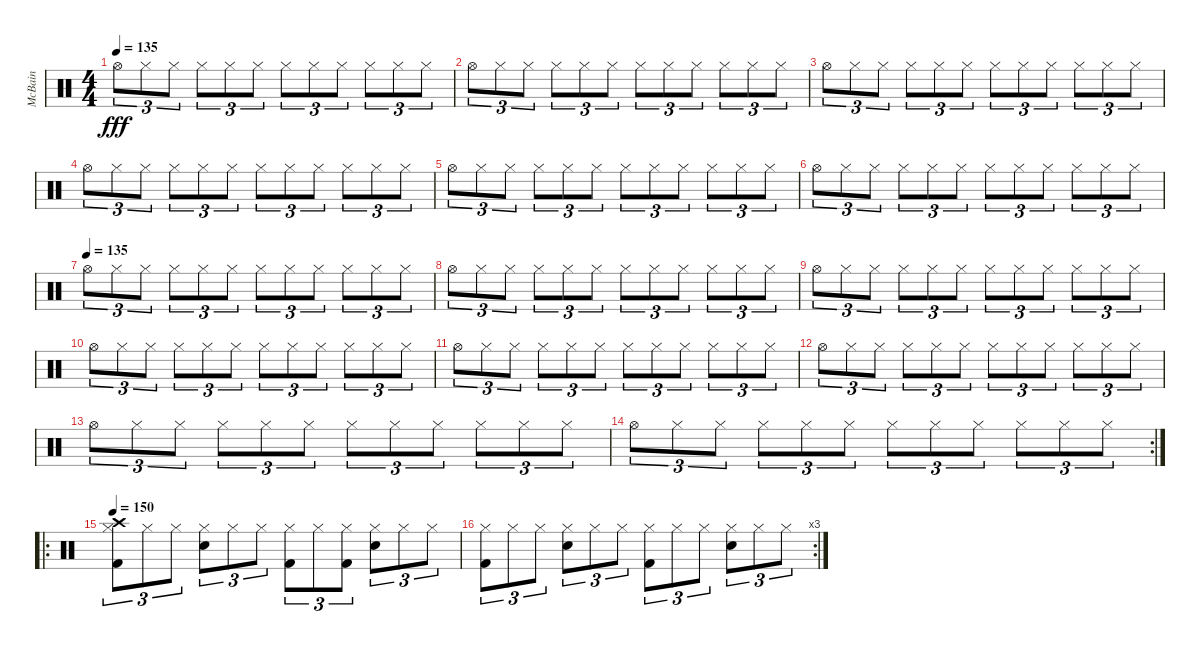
\track ("McBain" "McBain") {instrument percussion}
\staff {score}
\articulation defaults
\ts (4 4)
\tempo 135
\clef neutral
\ks c "Hi-Hat (open)".8{tu (3 2) dy fff} "Hi-Hat (closed)".8{tu (3 2)} "Hi-Hat (closed)".8{tu (3 2)} "Hi-Hat (closed)".8{tu (3 2)} "Hi-Hat (closed)".8{tu (3 2)} "Hi-Hat (closed)".8{tu (3 2)} "Hi-Hat (closed)".8{tu (3 2)} "Hi-Hat (closed)".8{tu (3 2)} "Hi-Hat (closed)".8{tu (3 2)} "Hi-Hat (closed)".8{tu (3 2)} "Hi-Hat (closed)".8{tu (3 2)} "Hi-Hat (closed)".8{tu (3 2)}
|
"Hi-Hat (open)".8{tu (3 2)} "Hi-Hat (closed)".8{tu (3 2)} "Hi-Hat (closed)".8{tu (3 2)} "Hi-Hat (closed)".8{tu (3 2)} "Hi-Hat (closed)".8{tu (3 2)} "Hi-Hat (closed)".8{tu (3 2)} "Hi-Hat (closed)".8{tu (3 2)} "Hi-Hat (closed)".8{tu (3 2)} "Hi-Hat (closed)".8{tu (3 2)} "Hi-Hat (closed)".8{tu (3 2)} "Hi-Hat (closed)".8{tu (3 2)} "Hi-Hat (closed)".8{tu (3 2)} |
"Hi-Hat (open)".8{tu (3 2)} "Hi-Hat (closed)".8{tu (3 2)} "Hi-Hat (closed)".8{tu (3 2)} "Hi-Hat (closed)".8{tu (3 2)} "Hi-Hat (closed)".8{tu (3 2)} "Hi-Hat (closed)".8{tu (3 2)} "Hi-Hat (closed)".8{tu (3 2)} "Hi-Hat (closed)".8{tu (3 2)} "Hi-Hat (closed)".8{tu (3 2)} "Hi-Hat (closed)".8{tu (3 2)} "Hi-Hat (closed)".8{tu (3 2)} "Hi-Hat (closed)".8{tu (3 2)} |
"Hi-Hat (open)".8{tu (3 2)} "Hi-Hat (closed)".8{tu (3 2)} "Hi-Hat (closed)".8{tu (3 2)} "Hi-Hat (closed)".8{tu (3 2)} "Hi-Hat (closed)".8{tu (3 2)} "Hi-Hat (closed)".8{tu (3 2)} "Hi-Hat (closed)".8{tu (3 2)} "Hi-Hat (closed)".8{tu (3 2)} "Hi-Hat (closed)".8{tu (3 2)} "Hi-Hat (closed)".8{tu (3 2)} "Hi-Hat (closed)".8{tu (3 2)} "Hi-Hat (closed)".8{tu (3 2)} |
"Hi-Hat (open)".8{tu (3 2)} "Hi-Hat (closed)".8{tu (3 2)} "Hi-Hat (closed)".8{tu (3 2)} "Hi-Hat (closed)".8{tu (3 2)} "Hi-Hat (closed)".8{tu (3 2)} "Hi-Hat (closed)".8{tu (3 2)} "Hi-Hat (closed)".8{tu (3 2)} "Hi-Hat (closed)".8{tu (3 2)} "Hi-Hat (closed)".8{tu (3 2)} "Hi-Hat (closed)".8{tu (3 2)} "Hi-Hat (closed)".8{tu (3 2)} "Hi-Hat (closed)".8{tu (3 2)} |
"Hi-Hat (open)".8{tu (3 2)} "Hi-Hat (closed)".8{tu (3 2)} "Hi-Hat (closed)".8{tu (3 2)} "Hi-Hat (closed)".8{tu (3 2)} "Hi-Hat (closed)".8{tu (3 2)} "Hi-Hat (closed)".8{tu (3 2)} "Hi-Hat (closed)".8{tu (3 2)} "Hi-Hat (closed)".8{tu (3 2)} "Hi-Hat (closed)".8{tu (3 2)} "Hi-Hat (closed)".8{tu (3 2)} "Hi-Hat (closed)".8{tu (3 2)} "Hi-Hat (closed)".8{tu (3 2)} |
\tempo (135)
"Hi-Hat (open)".8{tu (3 2)} "Hi-Hat (closed)".8{tu (3 2)} "Hi-Hat (closed)".8{tu (3 2)} "Hi-Hat (closed)".8{tu (3 2)} "Hi-Hat (closed)".8{tu (3 2)} "Hi-Hat (closed)".8{tu (3 2)} "Hi-Hat (closed)".8{tu (3 2)} "Hi-Hat (closed)".8{tu (3 2)} "Hi-Hat (closed)".8{tu (3 2)} "Hi-Hat (closed)".8{tu (3 2)} "Hi-Hat (closed)".8{tu (3 2)} "Hi-Hat (closed)".8{tu (3 2)} |
"Hi-Hat (open)".8{tu (3 2)} "Hi-Hat (closed)".8{tu (3 2)} "Hi-Hat (closed)".8{tu (3 2)} "Hi-Hat (closed)".8{tu (3 2)} "Hi-Hat (closed)".8{tu (3 2)} "Hi-Hat (closed)".8{tu (3 2)} "Hi-Hat (closed)".8{tu (3 2)} "Hi-Hat (closed)".8{tu (3 2)} "Hi-Hat (closed)".8{tu (3 2)} "Hi-Hat (closed)".8{tu (3 2)} "Hi-Hat (closed)".8{tu (3 2)} "Hi-Hat (closed)".8{tu (3 2)} |
"Hi-Hat (open)".8{tu (3 2)} "Hi-Hat (closed)".8{tu (3 2)} "Hi-Hat (closed)".8{tu (3 2)} "Hi-Hat (closed)".8{tu (3 2)} "Hi-Hat (closed)".8{tu (3 2)} "Hi-Hat (closed)".8{tu (3 2)} "Hi-Hat (closed)".8{tu (3 2)} "Hi-Hat (closed)".8{tu (3 2)} "Hi-Hat (closed)".8{tu (3 2)} "Hi-Hat (closed)".8{tu (3 2)} "Hi-Hat (closed)".8{tu (3 2)} "Hi-Hat (closed)".8{tu (3 2)} |
"Hi-Hat (open)".8{tu (3 2)} "Hi-Hat (closed)".8{tu (3 2)} "Hi-Hat (closed)".8{tu (3 2)} "Hi-Hat (closed)".8{tu (3 2)} "Hi-Hat (closed)".8{tu (3 2)} "Hi-Hat (closed)".8{tu (3 2)} "Hi-Hat (closed)".8{tu (3 2)} "Hi-Hat (closed)".8{tu (3 2)} "Hi-Hat (closed)".8{tu (3 2)} "Hi-Hat (closed)".8{tu (3 2)} "Hi-Hat (closed)".8{tu (3 2)} "Hi-Hat (closed)".8{tu (3 2)} |
"Hi-Hat (open)".8{tu (3 2)} "Hi-Hat (closed)".8{tu (3 2)} "Hi-Hat (closed)".8{tu (3 2)} "Hi-Hat (closed)".8{tu (3 2)} "Hi-Hat (closed)".8{tu (3 2)} "Hi-Hat (closed)".8{tu (3 2)} "Hi-Hat (closed)".8{tu (3 2)} "Hi-Hat (closed)".8{tu (3 2)} "Hi-Hat (closed)".8{tu (3 2)} "Hi-Hat (closed)".8{tu (3 2)} "Hi-Hat (closed)".8{tu (3 2)} "Hi-Hat (closed)".8{tu (3 2)} |
"Hi-Hat (open)".8{tu (3 2)} "Hi-Hat (closed)".8{tu (3 2)} "Hi-Hat (closed)".8{tu (3 2)} "Hi-Hat (closed)".8{tu (3 2)} "Hi-Hat (closed)".8{tu (3 2)} "Hi-Hat (closed)".8{tu (3 2)} "Hi-Hat (closed)".8{tu (3 2)} "Hi-Hat (closed)".8{tu (3 2)} "Hi-Hat (closed)".8{tu (3 2)} "Hi-Hat (closed)".8{tu (3 2)} "Hi-Hat (closed)".8{tu (3 2)} "Hi-Hat (closed)".8{tu (3 2)} |
"Hi-Hat (open)".8{tu (3 2)} "Hi-Hat (closed)".8{tu (3 2)} "Hi-Hat (closed)".8{tu (3 2)} "Hi-Hat (closed)".8{tu (3 2)} "Hi-Hat (closed)".8{tu (3 2)} "Hi-Hat (closed)".8{tu (3 2)} "Hi-Hat (closed)".8{tu (3 2)} "Hi-Hat (closed)".8{tu (3 2)} "Hi-Hat (closed)".8{tu (3 2)} "Hi-Hat (closed)".8{tu (3 2)} "Hi-Hat (closed)".8{tu (3 2)} "Hi-Hat (closed)".8{tu (3 2)} |
\rc 2 "Hi-Hat (open)".8{tu (3 2)} "Hi-Hat (closed)".8{tu (3 2)} "Hi-Hat (closed)".8{tu (3 2)} "Hi-Hat (closed)".8{tu (3 2)} "Hi-Hat (closed)".8{tu (3 2)} "Hi-Hat (closed)".8{tu (3 2)} "Hi-Hat (closed)".8{tu (3 2)} "Hi-Hat (closed)".8{tu (3 2)} "Hi-Hat (closed)".8{tu (3 2)} "Hi-Hat (closed)".8{tu (3 2)} "Hi-Hat (closed)".8{tu (3 2)} "Hi-Hat (closed)".8{tu (3 2)}
|
\ro
\tempo 150
("Hi-Hat (closed)" "Kick (hit) 2" "Crash high (hit)").8{tu (3 2)} "Hi-Hat (closed)".8{tu (3 2)} "Hi-Hat (closed)".8{tu (3 2)} ("Hi-Hat (closed)" "Snare (hit) 2").8{tu (3 2)} "Hi-Hat (closed)".8{tu (3 2)} "Hi-Hat (closed)".8{tu (3 2)} ("Hi-Hat (closed)" "Kick (hit) 2").8{tu (3 2)} "Hi-Hat (closed)".8{tu (3 2)} ("Hi-Hat (closed)" "Kick (hit) 2").8{tu (3 2)} ("Hi-Hat (closed)" "Snare (hit) 2").8{tu (3 2)} "Hi-Hat (closed)".8{tu (3 2)} "Hi-Hat (closed)".8{tu (3 2)} |
\rc 3
("Hi-Hat (closed)" "Kick (hit) 2").8{tu (3 2)} "Hi-Hat (closed)".8{tu (3 2)} "Hi-Hat (closed)".8{tu (3 2)} ("Hi-Hat (closed)" "Snare (hit) 2").8{tu (3 2)} "Hi-Hat (closed)".8{tu (3 2)} "Hi-Hat (closed)".8{tu (3 2)} ("Hi-Hat (closed)" "Kick (hit) 2").8{tu (3 2)} "Hi-Hat (closed)".8{tu (3 2)} "Hi-Hat (closed)".8{tu (3 2)} ("Hi-Hat (closed)" "Snare (hit) 2").8{tu (3 2)} "Hi-Hat (closed)".8{tu (3 2)} "Hi-Hat (closed)".8{tu (3 2)}
